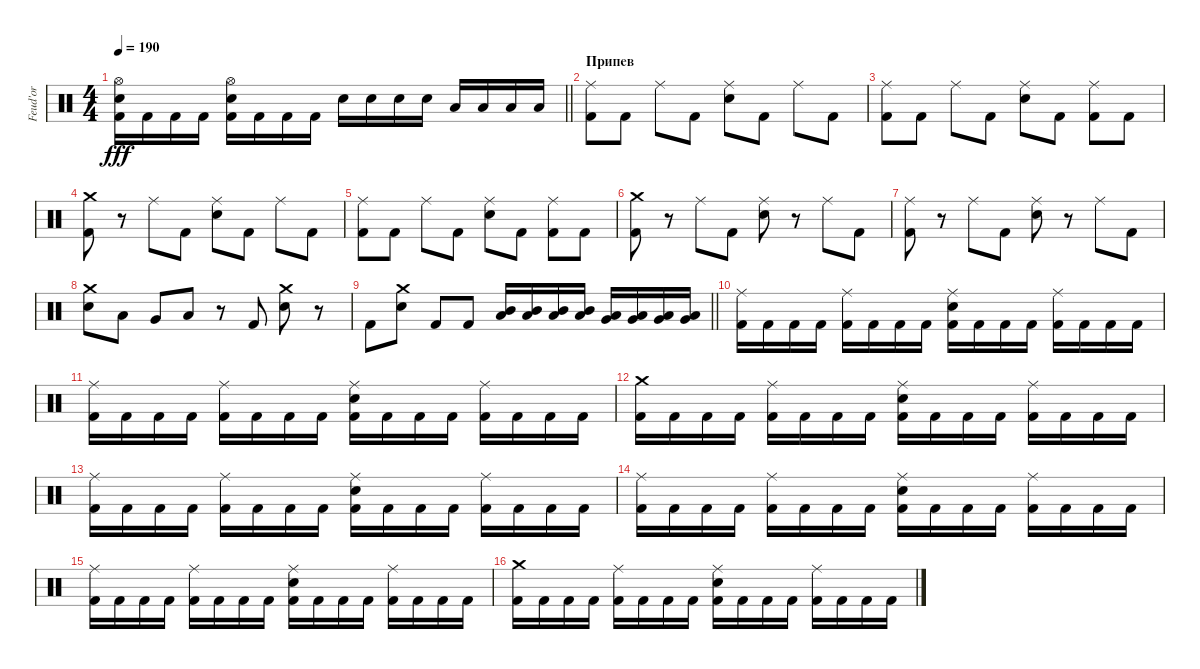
\track ("Feud'or" "Feud'or") {instrument percussion}
\staff {score}
\articulation defaults
\ts (4 4)
\tempo 190
\clef neutral
\barLineRight lightlight
\ks c
("Hi-Hat (open)" "Snare (hit) 2" "Kick (hit) 2").16{dy fff} "Kick (hit) 2".16 "Kick (hit) 2".16 "Kick (hit) 2".16 ("Hi-Hat (open)" "Snare (hit) 2" "Kick (hit) 2").16 "Kick (hit) 2".16 "Kick (hit) 2".16 "Kick (hit) 2".16 "Snare (hit) 2".16 "Snare (hit) 2".16 "Snare (hit) 2".16 "Snare (hit) 2".16 "Low Tom (hit)".16 "Low Tom (hit)".16 "Low Tom (hit)".16 "Low Tom (hit)".16 |
\section ("" "Припев")
("Ride (middle)" "Kick (hit) 2").8 "Kick (hit) 2".8 "Ride (middle)".8 "Kick (hit) 2".8 ("Ride (middle)" "Snare (hit) 2").8 "Kick (hit) 2".8 "Ride (middle)".8 "Kick (hit) 2".8 |
("Ride (middle)" "Kick (hit) 2").8 "Kick (hit) 2".8 "Ride (middle)".8 "Kick (hit) 2".8 ("Ride (middle)" "Snare (hit) 2").8 "Kick (hit) 2".8 ("Ride (middle)" "Kick (hit) 2").8 "Kick (hit) 2".8 |
("Crash medium (hit)" "Kick (hit) 2").8 r.8 "Ride (middle)".8 "Kick (hit) 2".8 ("Ride (middle)" "Snare (hit) 2").8 "Kick (hit) 2".8 "Ride (middle)".8 "Kick (hit) 2".8 |
("Ride (middle)" "Kick (hit) 2").8 "Kick (hit) 2".8 "Ride (middle)".8 "Kick (hit) 2".8 ("Ride (middle)" "Snare (hit) 2").8 "Kick (hit) 2".8 ("Ride (middle)" "Kick (hit) 2").8 "Kick (hit) 2".8 |
("Crash medium (hit)" "Kick (hit) 2").8 r.8 "Ride (middle)".8 "Kick (hit) 2".8 ("Ride (middle)" "Snare (hit) 2").8 r.8 "Ride (middle)".8 "Kick (hit) 2".8 |
("Ride (middle)" "Kick (hit) 2").8 r.8 "Ride (middle)".8 "Kick (hit) 2".8 ("Ride (middle)" "Snare (hit) 2").8 r.8 "Ride (middle)".8 "Kick (hit) 2".8 |
("Crash medium (hit)" "Snare (hit) 2").8 "Low Tom (hit)".8 "Very Low Tom (hit)".8 "Low Floor Tom (hit)".8 r.8 "Kick (hit) 2".8 ("Crash medium (hit)" "Snare (hit) 2").8 r.8 |
\barLineRight lightlight "Kick (hit) 2".8
("Crash medium (hit)" "Snare (hit) 2").8 "Kick (hit) 2".8 "Kick (hit) 2".8 ("Mid Tom (hit)" "Low Tom (hit)").16 ("Mid Tom (hit)" "Low Tom (hit)").16 ("Mid Tom (hit)" "Low Tom (hit)").16 ("Mid Tom (hit)" "Low Tom (hit)").16 ("Low Tom (hit)" "Very Low Tom (hit)").16 ("Low Tom (hit)" "Very Low Tom (hit)").16 ("Low Tom (hit)" "Very Low Tom (hit)").16 ("Low Tom (hit)" "Very Low Tom (hit)").16 |
("Ride (middle)" "Kick (hit) 2").16 "Kick (hit) 2".16 "Kick (hit) 2".16 "Kick (hit) 2".16 ("Ride (middle)" "Kick (hit) 2").16 "Kick (hit) 2".16 "Kick (hit) 2".16 "Kick (hit) 2".16 ("Ride (middle)" "Snare (hit) 2" "Kick (hit) 2").16 "Kick (hit) 2".16 "Kick (hit) 2".16 "Kick (hit) 2".16 ("Ride (middle)" "Kick (hit) 2").16 "Kick (hit) 2".16 "Kick (hit) 2".16 "Kick (hit) 2".16 |
("Ride (middle)" "Kick (hit) 2").16 "Kick (hit) 2".16 "Kick (hit) 2".16 "Kick (hit) 2".16 ("Ride (middle)" "Kick (hit) 2").16 "Kick (hit) 2".16 "Kick (hit) 2".16 "Kick (hit) 2".16 ("Ride (middle)" "Snare (hit) 2" "Kick (hit) 2").16 "Kick (hit) 2".16 "Kick (hit) 2".16 "Kick (hit) 2".16 ("Ride (middle)" "Kick (hit) 2").16 "Kick (hit) 2".16 "Kick (hit) 2".16 "Kick (hit) 2".16 |
("Crash medium (hit)" "Kick (hit) 2").16 "Kick (hit) 2".16 "Kick (hit) 2".16 "Kick (hit) 2".16 ("Ride (middle)" "Kick (hit) 2").16 "Kick (hit) 2".16 "Kick (hit) 2".16 "Kick (hit) 2".16 ("Ride (middle)" "Snare (hit) 2" "Kick (hit) 2").16 "Kick (hit) 2".16 "Kick (hit) 2".16 "Kick (hit) 2".16 ("Ride (middle)" "Kick (hit) 2").16 "Kick (hit) 2".16 "Kick (hit) 2".16 "Kick (hit) 2".16 |
("Ride (middle)" "Kick (hit) 2").16 "Kick (hit) 2".16 "Kick (hit) 2".16 "Kick (hit) 2".16 ("Ride (middle)" "Kick (hit) 2").16 "Kick (hit) 2".16 "Kick (hit) 2".16 "Kick (hit) 2".16 ("Ride (middle)" "Snare (hit) 2" "Kick (hit) 2").16 "Kick (hit) 2".16 "Kick (hit) 2".16 "Kick (hit) 2".16 ("Ride (middle)" "Kick (hit) 2").16 "Kick (hit) 2".16 "Kick (hit) 2".16 "Kick (hit) 2".16 |
("Ride (middle)" "Kick (hit) 2").16 "Kick (hit) 2".16 "Kick (hit) 2".16 "Kick (hit) 2".16 ("Ride (middle)" "Kick (hit) 2").16 "Kick (hit) 2".16 "Kick (hit) 2".16 "Kick (hit) 2".16 ("Ride (middle)" "Snare (hit) 2" "Kick (hit) 2").16 "Kick (hit) 2".16 "Kick (hit) 2".16 "Kick (hit) 2".16 ("Ride (middle)" "Kick (hit) 2").16 "Kick (hit) 2".16 "Kick (hit) 2".16 "Kick (hit) 2".16 |
("Ride (middle)" "Kick (hit) 2").16 "Kick (hit) 2".16 "Kick (hit) 2".16 "Kick (hit) 2".16 ("Ride (middle)" "Kick (hit) 2").16 "Kick (hit) 2".16 "Kick (hit) 2".16 "Kick (hit) 2".16 ("Ride (middle)" "Snare (hit) 2" "Kick (hit) 2").16 "Kick (hit) 2".16 "Kick (hit) 2".16 "Kick (hit) 2".16 ("Ride (middle)" "Kick (hit) 2").16 "Kick (hit) 2".16 "Kick (hit) 2".16 "Kick (hit) 2".16 |
("Crash medium (hit)" "Kick (hit) 2").16 "Kick (hit) 2".16 "Kick (hit) 2".16 "Kick (hit) 2".16 ("Ride (middle)" "Kick (hit) 2").16 "Kick (hit) 2".16 "Kick (hit) 2".16 "Kick (hit) 2".16 ("Ride (middle)" "Snare (hit) 2" "Kick (hit) 2").16 "Kick (hit) 2".16 "Kick (hit) 2".16 "Kick (hit) 2".16 ("Ride (middle)" "Kick (hit) 2").16 "Kick (hit) 2".16 "Kick (hit) 2".16 "Kick (hit) 2".16
